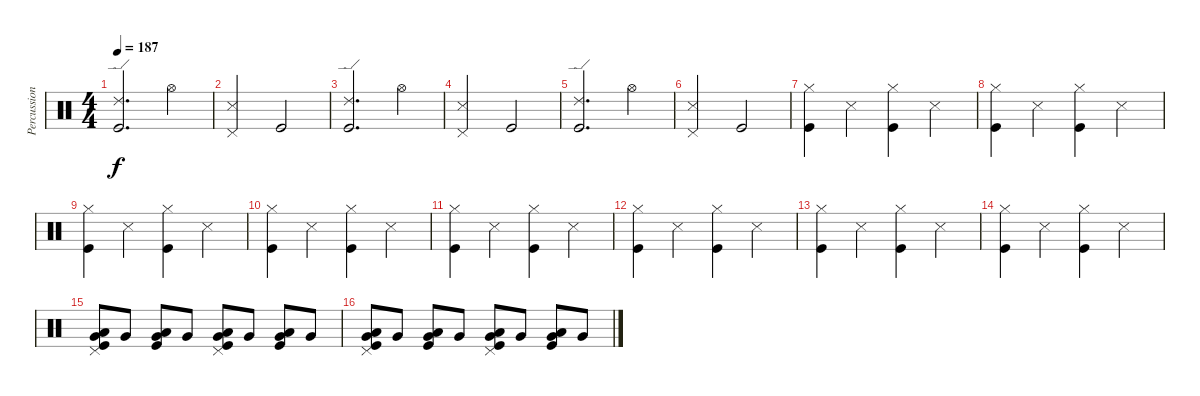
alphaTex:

\track ("Percussion" "Percussion") {instrument percussion}
\staff {score}
\articulation defaults
\ts (4 4)
\tempo 187
\clef neutral
\ks c
("Ride (edge) 2" "Kick (hit)").2{d dy f} "Hi-Hat (open)".4 |
("Pedal Hi-Hat (hit)" "Snare (side stick) 3").2 "Kick (hit)".2 |
("Ride (edge) 2" "Kick (hit)").2{d} "Hi-Hat (open)".4 |
("Pedal Hi-Hat (hit)" "Snare (side stick) 3").2 "Kick (hit)".2 |
("Ride (edge) 2" "Kick (hit)").2{d} "Hi-Hat (open)".4 |
("Pedal Hi-Hat (hit)" "Snare (side stick) 3").2 "Kick (hit)".2 |
("Hi-Hat (closed)" "Kick (hit)").4 "Snare (side stick) 3".4 ("Hi-Hat (closed)" "Kick (hit)").4 "Snare (side stick) 3".4 |
("Hi-Hat (closed)" "Kick (hit)").4 "Snare (side stick) 3".4 ("Hi-Hat (closed)" "Kick (hit)").4 "Snare (side stick) 3".4 |
("Hi-Hat (closed)" "Kick (hit)").4 "Snare (side stick) 3".4 ("Hi-Hat (closed)" "Kick (hit)").4 "Snare (side stick) 3".4 |
("Hi-Hat (closed)" "Kick (hit)").4 "Snare (side stick) 3".4 ("Hi-Hat (closed)" "Kick (hit)").4 "Snare (side stick) 3".4 |
("Hi-Hat (closed)" "Kick (hit)").4 "Snare (side stick) 3".4 ("Hi-Hat (closed)" "Kick (hit)").4 "Snare (side stick) 3".4 |
("Hi-Hat (closed)" "Kick (hit)").4 "Snare (side stick) 3".4 ("Hi-Hat (closed)" "Kick (hit)").4 "Snare (side stick) 3".4 |
("Hi-Hat (closed)" "Kick (hit)").4 "Snare (side stick) 3".4 ("Hi-Hat (closed)" "Kick (hit)").4 "Snare (side stick) 3".4 |
("Hi-Hat (closed)" "Kick (hit)").4 "Snare (side stick) 3".4 ("Hi-Hat (closed)" "Kick (hit)").4 "Snare (side stick) 3".4 |
("Pedal Hi-Hat (hit)" "Very Low Tom (hit)" "Low Floor Tom (hit)" "Kick (hit)").8 "Very Low Tom (hit)".8 ("Very Low Tom (hit)" "Low Floor Tom (hit)" "Kick (hit)").8 "Very Low Tom (hit)".8 ("Pedal Hi-Hat (hit)" "Very Low Tom (hit)" "Low Floor Tom (hit)" "Kick (hit)").8 "Very Low Tom (hit)".8 ("Very Low Tom (hit)" "Low Floor Tom (hit)" "Kick (hit)").8 "Very Low Tom (hit)".8 |
("Pedal Hi-Hat (hit)" "Very Low Tom (hit)" "Low Floor Tom (hit)" "Kick (hit)").8 "Very Low Tom (hit)".8 ("Very Low Tom (hit)" "Low Floor Tom (hit)" "Kick (hit)").8 "Very Low Tom (hit)".8 ("Pedal Hi-Hat (hit)" "Very Low Tom (hit)" "Low Floor Tom (hit)" "Kick (hit)").8 "Very Low Tom (hit)".8 ("Very Low Tom (hit)" "Low Floor Tom (hit)" "Kick (hit)").8 "Very Low Tom (hit)".8
